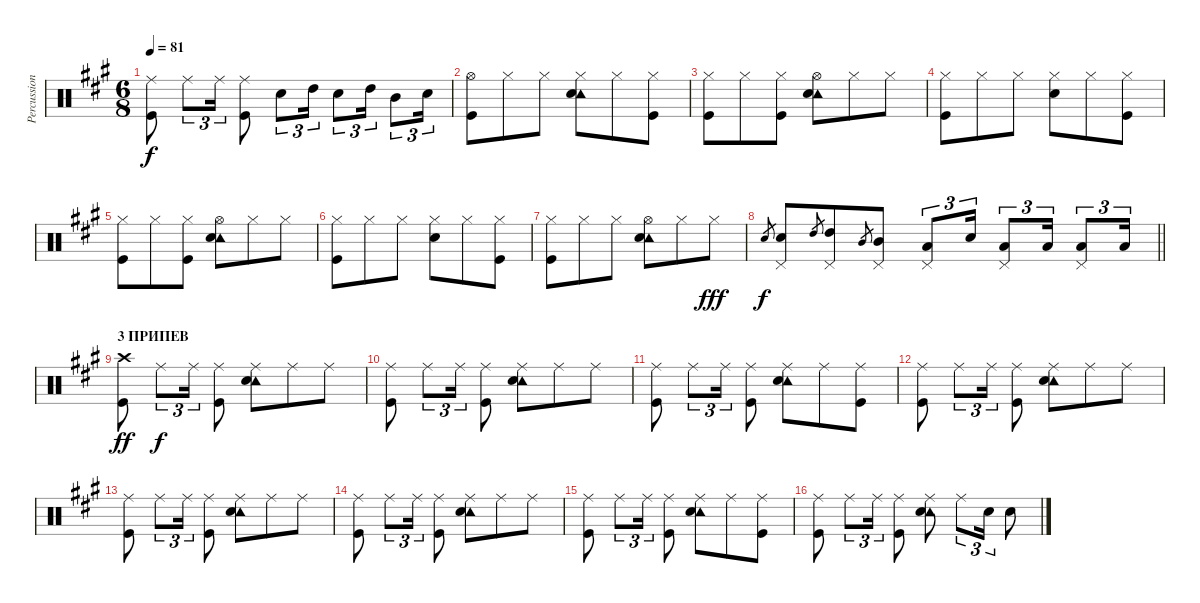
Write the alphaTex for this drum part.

\track ("Percussion" "Percussion") {instrument percussion}
\staff {score}
\articulation defaults
\ts (6 8)
\tempo 81
\clef neutral
\ks a
("Ride (middle)" "Kick (hit)").8{dy f} "Ride (middle)".8{tu (3 2)} "Ride (middle)".16{tu (3 2)} ("Ride (middle)" "Kick (hit)").8 "Snare (hit) 2".8{tu (3 2)} "High Tom (hit)".16{tu (3 2)} "Snare (hit) 2".8{tu (3 2)} "High Tom (hit)".16{tu (3 2)} "Mid Tom (hit)".8{tu (3 2)} "Snare (hit) 2".16{tu (3 2)} |
("Hi-Hat (open)" "Kick (hit)").8 "Hi-Hat (closed)".8 "Hi-Hat (closed)".8 ("Hi-Hat (closed)" "Tambourine (hit)" "Snare (hit) 2").8 "Hi-Hat (closed)".8 ("Hi-Hat (closed)" "Kick (hit)").8 |
("Hi-Hat (closed)" "Kick (hit)").8 "Hi-Hat (closed)".8 ("Hi-Hat (closed)" "Kick (hit)").8 ("Hi-Hat (open)" "Tambourine (hit)" "Snare (hit) 2").8 "Hi-Hat (closed)".8 "Hi-Hat (closed)".8 |
("Hi-Hat (closed)" "Kick (hit)").8 "Hi-Hat (closed)".8 "Hi-Hat (closed)".8 ("Hi-Hat (closed)" "Snare (hit) 2").8 "Hi-Hat (closed)".8 ("Hi-Hat (closed)" "Kick (hit)").8 |
("Hi-Hat (closed)" "Kick (hit)").8 "Hi-Hat (closed)".8 ("Hi-Hat (closed)" "Kick (hit)").8 ("Hi-Hat (open)" "Tambourine (hit)" "Snare (hit) 2").8 "Hi-Hat (closed)".8 "Hi-Hat (closed)".8 |
("Hi-Hat (closed)" "Kick (hit)").8 "Hi-Hat (closed)".8 "Hi-Hat (closed)".8 ("Hi-Hat (closed)" "Snare (hit) 2").8 "Hi-Hat (closed)".8 ("Hi-Hat (closed)" "Kick (hit)").8 |
("Hi-Hat (closed)" "Kick (hit)").8 "Hi-Hat (closed)".8 "Hi-Hat (closed)".8 ("Hi-Hat (open)" "Tambourine (hit)" "Snare (hit) 2").8 "Hi-Hat (closed)".8 "Hi-Hat (closed)".8{dy fff} |
\barLineRight lightlight "Snare (hit) 2".8{gr dy f}
("Pedal Hi-Hat (hit)" "Snare (hit) 2").8 "High Tom (hit)".8{gr} ("Pedal Hi-Hat (hit)" "High Tom (hit)").8 "Mid Tom (hit)".8{gr} ("Pedal Hi-Hat (hit)" "Mid Tom (hit)").8 ("Pedal Hi-Hat (hit)" "Low Tom (hit)").8{tu (3 2)} "Snare (hit) 2".16{tu (3 2)} ("Pedal Hi-Hat (hit)" "Low Tom (hit)").8{tu (3 2)} "Low Tom (hit)".16{tu (3 2)} ("Pedal Hi-Hat (hit)" "Low Floor Tom (hit)").8{tu (3 2)} "Low Floor Tom (hit)".16{tu (3 2)} |
\section ("" "3 ПРИПЕВ")
("Crash high (hit)" "Kick (hit)").8{dy ff} "Ride (middle)".8{tu (3 2) dy f} "Ride (middle)".16{tu (3 2)} ("Ride (middle)" "Kick (hit)").8 ("Ride (middle)" "Tambourine (hit)" "Snare (hit) 2").8 "Ride (middle)".8 "Ride (middle)".8 |
("Ride (middle)" "Kick (hit)").8 "Ride (middle)".8{tu (3 2)} "Ride (middle)".16{tu (3 2)} ("Ride (middle)" "Kick (hit)").8 ("Ride (middle)" "Tambourine (hit)" "Snare (hit) 2").8 "Ride (middle)".8 "Ride (middle)".8 |
("Ride (middle)" "Kick (hit)").8 "Ride (middle)".8{tu (3 2)} "Ride (middle)".16{tu (3 2)} ("Ride (middle)" "Kick (hit)").8 ("Ride (middle)" "Tambourine (hit)" "Snare (hit) 2").8 "Ride (middle)".8 ("Ride (middle)" "Kick (hit)").8 |
("Ride (middle)" "Kick (hit)").8 "Ride (middle)".8{tu (3 2)} "Ride (middle)".16{tu (3 2)} ("Ride (middle)" "Kick (hit)").8 ("Ride (middle)" "Tambourine (hit)" "Snare (hit) 2").8 "Ride (middle)".8 "Ride (middle)".8 |
("Ride (middle)" "Kick (hit)").8 "Ride (middle)".8{tu (3 2)} "Ride (middle)".16{tu (3 2)} ("Ride (middle)" "Kick (hit)").8 ("Ride (middle)" "Tambourine (hit)" "Snare (hit) 2").8 "Ride (middle)".8 "Ride (middle)".8 |
("Ride (middle)" "Kick (hit)").8 "Ride (middle)".8{tu (3 2)} "Ride (middle)".16{tu (3 2)} ("Ride (middle)" "Kick (hit)").8 ("Ride (middle)" "Tambourine (hit)" "Snare (hit) 2").8 "Ride (middle)".8 "Ride (middle)".8 |
("Ride (middle)" "Kick (hit)").8 "Ride (middle)".8{tu (3 2)} "Ride (middle)".16{tu (3 2)} ("Ride (middle)" "Kick (hit)").8 ("Ride (middle)" "Tambourine (hit)" "Snare (hit) 2").8 "Ride (middle)".8 ("Ride (middle)" "Kick (hit)").8 |
("Ride (middle)" "Kick (hit)").8 "Ride (middle)".8{tu (3 2)} "Ride (middle)".16{tu (3 2)} ("Ride (middle)" "Kick (hit)").8 ("Ride (middle)" "Tambourine (hit)" "Snare (hit) 2").8 "Ride (middle)".8{tu (3 2)} "Snare (hit) 2".16{tu (3 2)} "Snare (hit) 2".8
